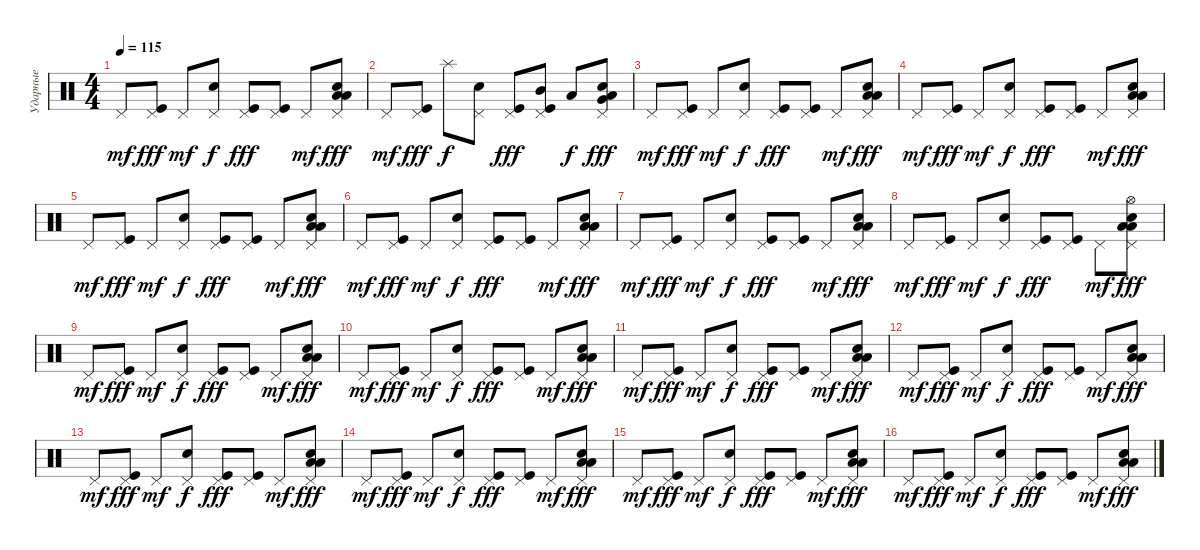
\track ("Ударные" "Ударные") {instrument percussion}
\staff {score}
\articulation defaults
\ts (4 4)
\tempo 115
\clef neutral
\ks c "Pedal Hi-Hat (hit)".8{dy mf}
("Pedal Hi-Hat (hit)" "Kick (hit)").8{dy fff} "Pedal Hi-Hat (hit)".8{dy mf} ("Pedal Hi-Hat (hit)" "Electric Snare (hit)").8{dy f} ("Pedal Hi-Hat (hit)" "Kick (hit)").8{dy fff} ("Pedal Hi-Hat (hit)" "Kick (hit)").8 "Pedal Hi-Hat (hit)".8{dy mf} ("Pedal Hi-Hat (hit)" "Low Tom (hit)" "Low Tom (hit)" "Electric Snare (hit)").8{dy fff} |
"Pedal Hi-Hat (hit)".8{dy mf} ("Pedal Hi-Hat (hit)" "Kick (hit)").8{dy fff} "Splash (hit)".8{dy f} ("Pedal Hi-Hat (hit)" "Electric Snare (hit)").8 ("Pedal Hi-Hat (hit)" "Kick (hit)").8{dy fff} ("Pedal Hi-Hat (hit)" "Kick (hit)" "Mid Tom (hit)").8 "Low Tom (hit)".8{dy f} ("Pedal Hi-Hat (hit)" "Very Low Tom (hit)" "Low Tom (hit)" "Electric Snare (hit)").8{dy fff} |
"Pedal Hi-Hat (hit)".8{dy mf} ("Pedal Hi-Hat (hit)" "Kick (hit)").8{dy fff} "Pedal Hi-Hat (hit)".8{dy mf} ("Pedal Hi-Hat (hit)" "Electric Snare (hit)").8{dy f} ("Pedal Hi-Hat (hit)" "Kick (hit)").8{dy fff} ("Pedal Hi-Hat (hit)" "Kick (hit)").8 "Pedal Hi-Hat (hit)".8{dy mf} ("Pedal Hi-Hat (hit)" "Low Tom (hit)" "Low Tom (hit)" "Electric Snare (hit)").8{dy fff} |
"Pedal Hi-Hat (hit)".8{dy mf} ("Pedal Hi-Hat (hit)" "Kick (hit)").8{dy fff} "Pedal Hi-Hat (hit)".8{dy mf} ("Pedal Hi-Hat (hit)" "Electric Snare (hit)").8{dy f} ("Pedal Hi-Hat (hit)" "Kick (hit)").8{dy fff} ("Pedal Hi-Hat (hit)" "Kick (hit)").8 "Pedal Hi-Hat (hit)".8{dy mf} ("Pedal Hi-Hat (hit)" "Low Tom (hit)" "Low Tom (hit)" "Electric Snare (hit)").8{dy fff} |
"Pedal Hi-Hat (hit)".8{dy mf} ("Pedal Hi-Hat (hit)" "Kick (hit)").8{dy fff} "Pedal Hi-Hat (hit)".8{dy mf} ("Pedal Hi-Hat (hit)" "Electric Snare (hit)").8{dy f} ("Pedal Hi-Hat (hit)" "Kick (hit)").8{dy fff} ("Pedal Hi-Hat (hit)" "Kick (hit)").8 "Pedal Hi-Hat (hit)".8{dy mf} ("Pedal Hi-Hat (hit)" "Low Tom (hit)" "Low Tom (hit)" "Electric Snare (hit)").8{dy fff} |
"Pedal Hi-Hat (hit)".8{dy mf} ("Pedal Hi-Hat (hit)" "Kick (hit)").8{dy fff} "Pedal Hi-Hat (hit)".8{dy mf} ("Pedal Hi-Hat (hit)" "Electric Snare (hit)").8{dy f} ("Pedal Hi-Hat (hit)" "Kick (hit)").8{dy fff} ("Pedal Hi-Hat (hit)" "Kick (hit)").8 "Pedal Hi-Hat (hit)".8{dy mf} ("Pedal Hi-Hat (hit)" "Low Tom (hit)" "Low Tom (hit)" "Electric Snare (hit)").8{dy fff} |
"Pedal Hi-Hat (hit)".8{dy mf} ("Pedal Hi-Hat (hit)" "Kick (hit)").8{dy fff} "Pedal Hi-Hat (hit)".8{dy mf} ("Pedal Hi-Hat (hit)" "Electric Snare (hit)").8{dy f} ("Pedal Hi-Hat (hit)" "Kick (hit)").8{dy fff} ("Pedal Hi-Hat (hit)" "Kick (hit)").8 "Pedal Hi-Hat (hit)".8{dy mf} ("Pedal Hi-Hat (hit)" "Low Tom (hit)" "Low Tom (hit)" "Electric Snare (hit)").8{dy fff} |
"Pedal Hi-Hat (hit)".8{dy mf} ("Pedal Hi-Hat (hit)" "Kick (hit)").8{dy fff} "Pedal Hi-Hat (hit)".8{dy mf} ("Pedal Hi-Hat (hit)" "Electric Snare (hit)").8{dy f} ("Pedal Hi-Hat (hit)" "Kick (hit)").8{dy fff} ("Pedal Hi-Hat (hit)" "Kick (hit)").8 "Pedal Hi-Hat (hit)".8{dy mf} ("Pedal Hi-Hat (hit)" "Hi-Hat (open)" "Low Tom (hit)" "Low Tom (hit)" "Electric Snare (hit)").8{dy fff} |
"Pedal Hi-Hat (hit)".8{dy mf} ("Pedal Hi-Hat (hit)" "Kick (hit)").8{dy fff} "Pedal Hi-Hat (hit)".8{dy mf} ("Pedal Hi-Hat (hit)" "Electric Snare (hit)").8{dy f} ("Pedal Hi-Hat (hit)" "Kick (hit)").8{dy fff} ("Pedal Hi-Hat (hit)" "Kick (hit)").8 "Pedal Hi-Hat (hit)".8{dy mf} ("Pedal Hi-Hat (hit)" "Low Tom (hit)" "Low Tom (hit)" "Electric Snare (hit)").8{dy fff} |
"Pedal Hi-Hat (hit)".8{dy mf} ("Pedal Hi-Hat (hit)" "Kick (hit)").8{dy fff} "Pedal Hi-Hat (hit)".8{dy mf} ("Pedal Hi-Hat (hit)" "Electric Snare (hit)").8{dy f} ("Pedal Hi-Hat (hit)" "Kick (hit)").8{dy fff} ("Pedal Hi-Hat (hit)" "Kick (hit)").8 "Pedal Hi-Hat (hit)".8{dy mf} ("Pedal Hi-Hat (hit)" "Low Tom (hit)" "Low Tom (hit)" "Electric Snare (hit)").8{dy fff} |
"Pedal Hi-Hat (hit)".8{dy mf} ("Pedal Hi-Hat (hit)" "Kick (hit)").8{dy fff} "Pedal Hi-Hat (hit)".8{dy mf} ("Pedal Hi-Hat (hit)" "Electric Snare (hit)").8{dy f} ("Pedal Hi-Hat (hit)" "Kick (hit)").8{dy fff} ("Pedal Hi-Hat (hit)" "Kick (hit)").8 "Pedal Hi-Hat (hit)".8{dy mf} ("Pedal Hi-Hat (hit)" "Low Tom (hit)" "Low Tom (hit)" "Electric Snare (hit)").8{dy fff} |
"Pedal Hi-Hat (hit)".8{dy mf} ("Pedal Hi-Hat (hit)" "Kick (hit)").8{dy fff} "Pedal Hi-Hat (hit)".8{dy mf} ("Pedal Hi-Hat (hit)" "Electric Snare (hit)").8{dy f} ("Pedal Hi-Hat (hit)" "Kick (hit)").8{dy fff} ("Pedal Hi-Hat (hit)" "Kick (hit)").8 "Pedal Hi-Hat (hit)".8{dy mf} ("Pedal Hi-Hat (hit)" "Low Tom (hit)" "Low Tom (hit)" "Electric Snare (hit)").8{dy fff} |
"Pedal Hi-Hat (hit)".8{dy mf} ("Pedal Hi-Hat (hit)" "Kick (hit)").8{dy fff} "Pedal Hi-Hat (hit)".8{dy mf} ("Pedal Hi-Hat (hit)" "Electric Snare (hit)").8{dy f} ("Pedal Hi-Hat (hit)" "Kick (hit)").8{dy fff} ("Pedal Hi-Hat (hit)" "Kick (hit)").8 "Pedal Hi-Hat (hit)".8{dy mf} ("Pedal Hi-Hat (hit)" "Low Tom (hit)" "Low Tom (hit)" "Electric Snare (hit)").8{dy fff} |
"Pedal Hi-Hat (hit)".8{dy mf} ("Pedal Hi-Hat (hit)" "Kick (hit)").8{dy fff} "Pedal Hi-Hat (hit)".8{dy mf} ("Pedal Hi-Hat (hit)" "Electric Snare (hit)").8{dy f} ("Pedal Hi-Hat (hit)" "Kick (hit)").8{dy fff} ("Pedal Hi-Hat (hit)" "Kick (hit)").8 "Pedal Hi-Hat (hit)".8{dy mf} ("Pedal Hi-Hat (hit)" "Low Tom (hit)" "Low Tom (hit)" "Electric Snare (hit)").8{dy fff} |
"Pedal Hi-Hat (hit)".8{dy mf} ("Pedal Hi-Hat (hit)" "Kick (hit)").8{dy fff} "Pedal Hi-Hat (hit)".8{dy mf} ("Pedal Hi-Hat (hit)" "Electric Snare (hit)").8{dy f} ("Pedal Hi-Hat (hit)" "Kick (hit)").8{dy fff} ("Pedal Hi-Hat (hit)" "Kick (hit)").8 "Pedal Hi-Hat (hit)".8{dy mf} ("Pedal Hi-Hat (hit)" "Low Tom (hit)" "Low Tom (hit)" "Electric Snare (hit)").8{dy fff} |
"Pedal Hi-Hat (hit)".8{dy mf} ("Pedal Hi-Hat (hit)" "Kick (hit)").8{dy fff} "Pedal Hi-Hat (hit)".8{dy mf} ("Pedal Hi-Hat (hit)" "Electric Snare (hit)").8{dy f} ("Pedal Hi-Hat (hit)" "Kick (hit)").8{dy fff} ("Pedal Hi-Hat (hit)" "Kick (hit)").8 "Pedal Hi-Hat (hit)".8{dy mf} ("Pedal Hi-Hat (hit)" "Low Tom (hit)" "Low Tom (hit)" "Electric Snare (hit)").8{dy fff}
